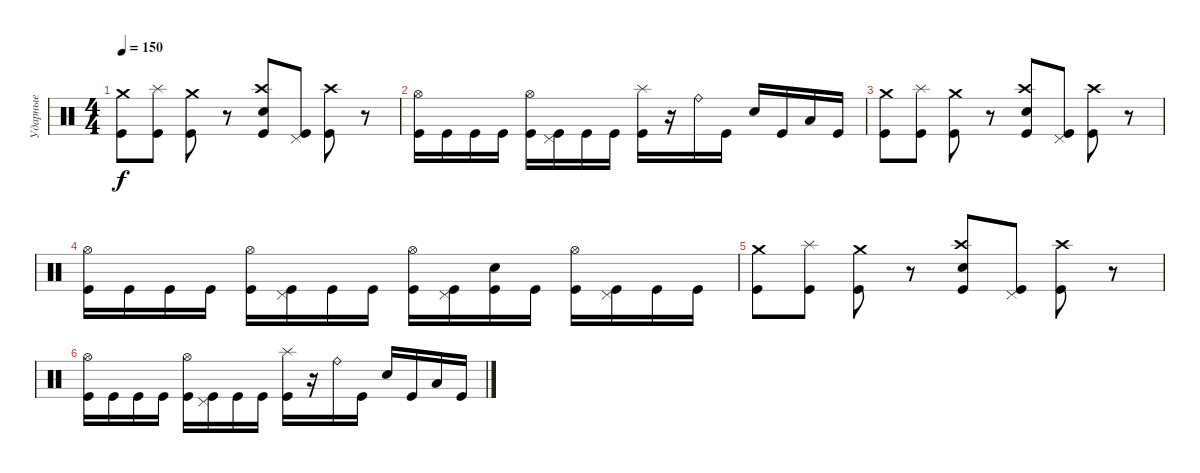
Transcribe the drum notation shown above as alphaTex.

\track ("Ударные" "Ударные") {instrument percussion}
\staff {score}
\articulation defaults
\ts (4 4)
\tempo 150
\clef neutral
\ks c
("Crash medium (hit)" "Kick (hit)").8{dy f} ("Splash (hit)" "Kick (hit)").8 ("Crash medium (hit)" "Kick (hit)").8 r.8 ("Crash high (hit)" "Electric Snare (hit)" "Kick (hit)").8 ("Pedal Hi-Hat (hit)" "Kick (hit)").8 ("Crash high (hit)" "Kick (hit)").8 r.8 |
("Hi-Hat (open)" "Kick (hit)").16 "Kick (hit)".16 "Kick (hit)".16 "Kick (hit)".16 ("Hi-Hat (open)" "Kick (hit)").16 ("Pedal Hi-Hat (hit)" "Kick (hit)").16 "Kick (hit)".16 "Kick (hit)".16 ("Splash (hit)" "Kick (hit)").16 r.16 "Ride (bell)".16 "Kick (hit)".16 "Electric Snare (hit)".16 "Kick (hit)".16 "Low Tom (hit)".16 "Kick (hit)".16 |
("Crash medium (hit)" "Kick (hit)").8 ("Splash (hit)" "Kick (hit)").8 ("Crash medium (hit)" "Kick (hit)").8 r.8 ("Crash high (hit)" "Electric Snare (hit)" "Kick (hit)").8 ("Pedal Hi-Hat (hit)" "Kick (hit)").8 ("Crash high (hit)" "Kick (hit)").8 r.8 |
("Hi-Hat (open)" "Kick (hit)").16 "Kick (hit)".16 "Kick (hit)".16 "Kick (hit)".16 ("Hi-Hat (open)" "Kick (hit)").16 ("Pedal Hi-Hat (hit)" "Kick (hit)").16 "Kick (hit)".16 "Kick (hit)".16 ("Hi-Hat (open)" "Kick (hit)").16 ("Pedal Hi-Hat (hit)" "Kick (hit)").16 ("Electric Snare (hit)" "Kick (hit)").16 "Kick (hit)".16 ("Hi-Hat (open)" "Kick (hit)").16 ("Pedal Hi-Hat (hit)" "Kick (hit)").16 "Kick (hit)".16 "Kick (hit)".16 |
("Crash medium (hit)" "Kick (hit)").8 ("Splash (hit)" "Kick (hit)").8 ("Crash medium (hit)" "Kick (hit)").8 r.8 ("Crash high (hit)" "Electric Snare (hit)" "Kick (hit)").8 ("Pedal Hi-Hat (hit)" "Kick (hit)").8 ("Crash high (hit)" "Kick (hit)").8 r.8 |
("Hi-Hat (open)" "Kick (hit)").16 "Kick (hit)".16 "Kick (hit)".16 "Kick (hit)".16 ("Hi-Hat (open)" "Kick (hit)").16 ("Pedal Hi-Hat (hit)" "Kick (hit)").16 "Kick (hit)".16 "Kick (hit)".16 ("Splash (hit)" "Kick (hit)").16 r.16 "Ride (bell)".16 "Kick (hit)".16 "Electric Snare (hit)".16 "Kick (hit)".16 "Low Tom (hit)".16 "Kick (hit)".16
